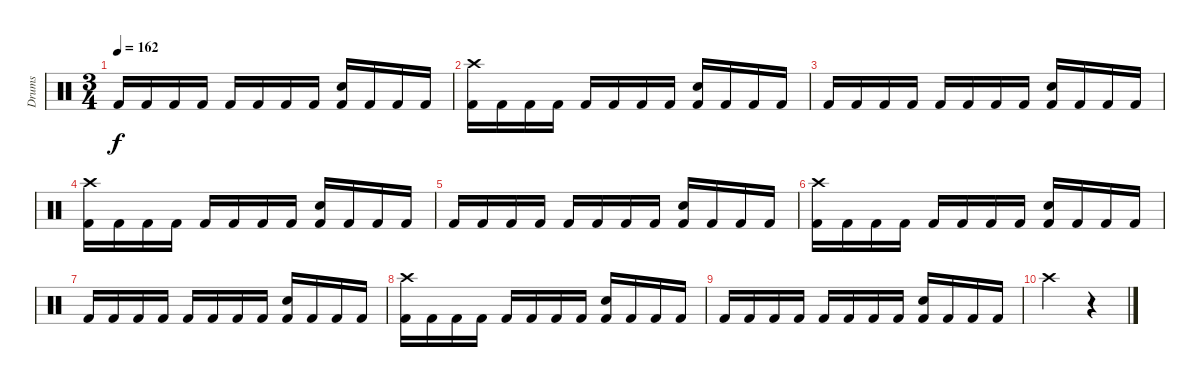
\track ("Drums" "Drums") {instrument percussion}
\staff {score}
\articulation defaults
\ts (3 4)
\tempo 162
\clef neutral
\ks c "Kick (hit) 2".16{dy f} "Kick (hit) 2".16 "Kick (hit) 2".16 "Kick (hit) 2".16 "Kick (hit) 2".16 "Kick (hit) 2".16 "Kick (hit) 2".16 "Kick (hit) 2".16
("Snare (hit) 2" "Kick (hit) 2").16 "Kick (hit) 2".16 "Kick (hit) 2".16 "Kick (hit) 2".16 |
("Crash high (hit)" "Kick (hit) 2").16 "Kick (hit) 2".16 "Kick (hit) 2".16 "Kick (hit) 2".16 "Kick (hit) 2".16 "Kick (hit) 2".16 "Kick (hit) 2".16 "Kick (hit) 2".16 ("Snare (hit) 2" "Kick (hit) 2").16 "Kick (hit) 2".16 "Kick (hit) 2".16 "Kick (hit) 2".16 |
"Kick (hit) 2".16 "Kick (hit) 2".16 "Kick (hit) 2".16 "Kick (hit) 2".16 "Kick (hit) 2".16 "Kick (hit) 2".16 "Kick (hit) 2".16 "Kick (hit) 2".16 ("Snare (hit) 2" "Kick (hit) 2").16 "Kick (hit) 2".16 "Kick (hit) 2".16 "Kick (hit) 2".16 |
("Crash high (hit)" "Kick (hit) 2").16 "Kick (hit) 2".16 "Kick (hit) 2".16 "Kick (hit) 2".16 "Kick (hit) 2".16 "Kick (hit) 2".16 "Kick (hit) 2".16 "Kick (hit) 2".16 ("Snare (hit) 2" "Kick (hit) 2").16 "Kick (hit) 2".16 "Kick (hit) 2".16 "Kick (hit) 2".16 |
"Kick (hit) 2".16 "Kick (hit) 2".16 "Kick (hit) 2".16 "Kick (hit) 2".16 "Kick (hit) 2".16 "Kick (hit) 2".16 "Kick (hit) 2".16 "Kick (hit) 2".16 ("Snare (hit) 2" "Kick (hit) 2").16 "Kick (hit) 2".16 "Kick (hit) 2".16 "Kick (hit) 2".16 |
("Crash high (hit)" "Kick (hit) 2").16 "Kick (hit) 2".16 "Kick (hit) 2".16 "Kick (hit) 2".16 "Kick (hit) 2".16 "Kick (hit) 2".16 "Kick (hit) 2".16 "Kick (hit) 2".16 ("Snare (hit) 2" "Kick (hit) 2").16 "Kick (hit) 2".16 "Kick (hit) 2".16 "Kick (hit) 2".16 |
"Kick (hit) 2".16 "Kick (hit) 2".16 "Kick (hit) 2".16 "Kick (hit) 2".16 "Kick (hit) 2".16 "Kick (hit) 2".16 "Kick (hit) 2".16 "Kick (hit) 2".16 ("Snare (hit) 2" "Kick (hit) 2").16 "Kick (hit) 2".16 "Kick (hit) 2".16 "Kick (hit) 2".16 |
("Crash high (hit)" "Kick (hit) 2").16 "Kick (hit) 2".16 "Kick (hit) 2".16 "Kick (hit) 2".16 "Kick (hit) 2".16 "Kick (hit) 2".16 "Kick (hit) 2".16 "Kick (hit) 2".16 ("Snare (hit) 2" "Kick (hit) 2").16 "Kick (hit) 2".16 "Kick (hit) 2".16 "Kick (hit) 2".16 |
"Kick (hit) 2".16 "Kick (hit) 2".16 "Kick (hit) 2".16 "Kick (hit) 2".16 "Kick (hit) 2".16 "Kick (hit) 2".16 "Kick (hit) 2".16 "Kick (hit) 2".16 ("Snare (hit) 2" "Kick (hit) 2").16 "Kick (hit) 2".16 "Kick (hit) 2".16 "Kick (hit) 2".16 |
"Crash high (hit)".2 r.4
